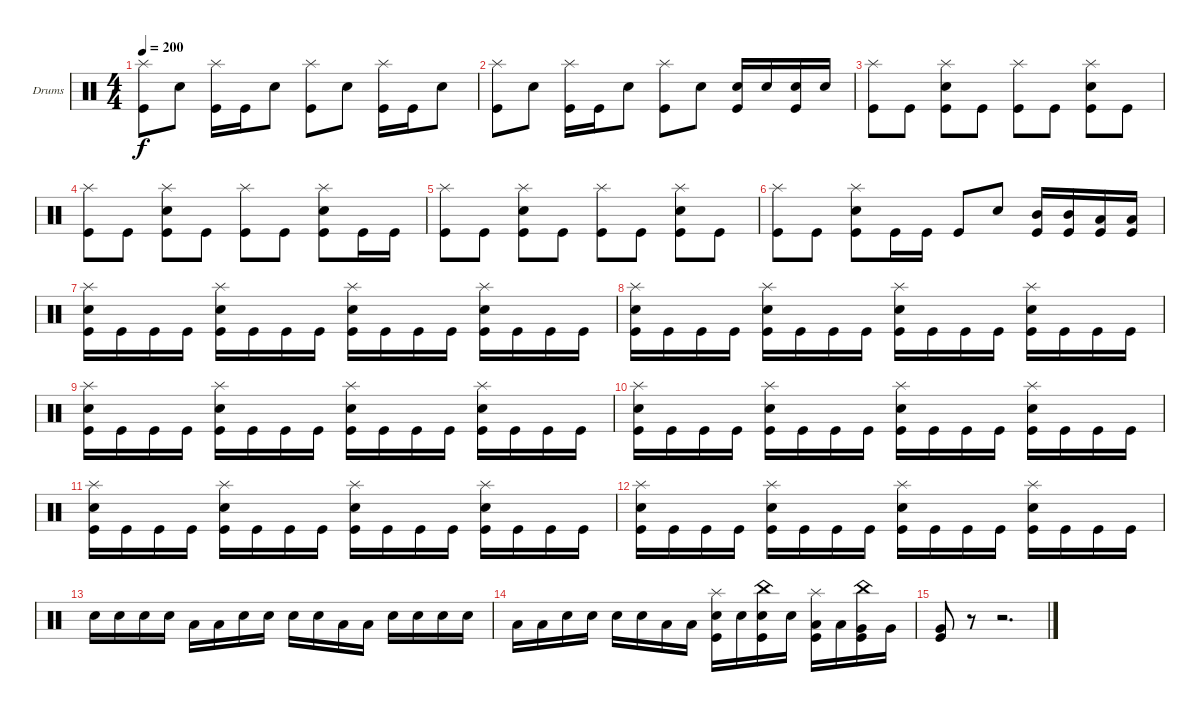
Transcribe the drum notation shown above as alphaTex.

\defaultSystemsLayout 4
\bracketExtendMode groupsimilarinstruments
\firstSystemTrackNameOrientation horizontal
\otherSystemsTrackNameOrientation horizontal
\track ("Drumkit" "Drums") {instrument percussion}
\staff {score}
\articulation defaults
\ts (4 4)
\tempo 200
\clef neutral
\ks c
("Splash (hit)" "Kick (hit)").8{dy f} "Snare (hit) 2".8 ("Splash (hit)" "Kick (hit)").16 "Kick (hit)".16 "Snare (hit) 2".8 ("Splash (hit)" "Kick (hit)").8 "Snare (hit) 2".8 ("Splash (hit)" "Kick (hit)").16 "Kick (hit)".16 "Snare (hit) 2".8 |
("Splash (hit)" "Kick (hit)").8 "Snare (hit) 2".8 ("Splash (hit)" "Kick (hit)").16 "Kick (hit)".16 "Snare (hit) 2".8 ("Splash (hit)" "Kick (hit)").8 "Snare (hit) 2".8 ("Kick (hit)" "Snare (hit) 2").16 "Snare (hit) 2".16 ("Snare (hit) 2" "Kick (hit)").16 "Snare (hit) 2".16 |
("Splash (hit)" "Kick (hit)").8 "Kick (hit)".8 ("Splash (hit)" "Kick (hit)" "Snare (hit) 2").8 "Kick (hit)".8 ("Splash (hit)" "Kick (hit)").8 "Kick (hit)".8 ("Splash (hit)" "Kick (hit)" "Snare (hit) 2").8 "Kick (hit)".8 |
("Splash (hit)" "Kick (hit)").8 "Kick (hit)".8 ("Splash (hit)" "Kick (hit)" "Snare (hit) 2").8 "Kick (hit)".8 ("Splash (hit)" "Kick (hit)").8 "Kick (hit)".8 ("Splash (hit)" "Kick (hit)" "Snare (hit) 2").8 "Kick (hit)".16 "Kick (hit)".16 |
("Splash (hit)" "Kick (hit)").8 "Kick (hit)".8 ("Splash (hit)" "Kick (hit)" "Snare (hit) 2").8 "Kick (hit)".8 ("Splash (hit)" "Kick (hit)").8 "Kick (hit)".8 ("Splash (hit)" "Kick (hit)" "Snare (hit) 2").8 "Kick (hit)".8 |
("Splash (hit)" "Kick (hit)").8 "Kick (hit)".8 ("Splash (hit)" "Kick (hit)" "Snare (hit) 2").8 "Kick (hit)".16 "Kick (hit)".16 "Kick (hit)".8 "Snare (hit) 2".8 ("Kick (hit)" "Mid Tom (hit)").16 ("Mid Tom (hit)" "Kick (hit)").16 ("Kick (hit)" "Low Tom (hit)").16 ("Low Tom (hit)" "Kick (hit)").16 |
("Splash (hit)" "Kick (hit)" "Snare (hit) 2").16 "Kick (hit)".16 "Kick (hit)".16 "Kick (hit)".16 ("Splash (hit)" "Kick (hit)" "Snare (hit) 2").16 "Kick (hit)".16 "Kick (hit)".16 "Kick (hit)".16 ("Splash (hit)" "Kick (hit)" "Snare (hit) 2").16 "Kick (hit)".16 "Kick (hit)".16 "Kick (hit)".16 ("Splash (hit)" "Kick (hit)" "Snare (hit) 2").16 "Kick (hit)".16 "Kick (hit)".16 "Kick (hit)".16 |
("Splash (hit)" "Kick (hit)" "Snare (hit) 2").16 "Kick (hit)".16 "Kick (hit)".16 "Kick (hit)".16 ("Splash (hit)" "Kick (hit)" "Snare (hit) 2").16 "Kick (hit)".16 "Kick (hit)".16 "Kick (hit)".16 ("Splash (hit)" "Kick (hit)" "Snare (hit) 2").16 "Kick (hit)".16 "Kick (hit)".16 "Kick (hit)".16 ("Splash (hit)" "Kick (hit)" "Snare (hit) 2").16 "Kick (hit)".16 "Kick (hit)".16 "Kick (hit)".16 |
("Splash (hit)" "Kick (hit)" "Snare (hit) 2").16 "Kick (hit)".16 "Kick (hit)".16 "Kick (hit)".16 ("Splash (hit)" "Kick (hit)" "Snare (hit) 2").16 "Kick (hit)".16 "Kick (hit)".16 "Kick (hit)".16 ("Splash (hit)" "Kick (hit)" "Snare (hit) 2").16 "Kick (hit)".16 "Kick (hit)".16 "Kick (hit)".16 ("Splash (hit)" "Kick (hit)" "Snare (hit) 2").16 "Kick (hit)".16 "Kick (hit)".16 "Kick (hit)".16 |
("Splash (hit)" "Kick (hit)" "Snare (hit) 2").16 "Kick (hit)".16 "Kick (hit)".16 "Kick (hit)".16 ("Splash (hit)" "Kick (hit)" "Snare (hit) 2").16 "Kick (hit)".16 "Kick (hit)".16 "Kick (hit)".16 ("Splash (hit)" "Kick (hit)" "Snare (hit) 2").16 "Kick (hit)".16 "Kick (hit)".16 "Kick (hit)".16 ("Splash (hit)" "Kick (hit)" "Snare (hit) 2").16 "Kick (hit)".16 "Kick (hit)".16 "Kick (hit)".16 |
("Splash (hit)" "Kick (hit)" "Snare (hit) 2").16 "Kick (hit)".16 "Kick (hit)".16 "Kick (hit)".16 ("Splash (hit)" "Kick (hit)" "Snare (hit) 2").16 "Kick (hit)".16 "Kick (hit)".16 "Kick (hit)".16 ("Splash (hit)" "Kick (hit)" "Snare (hit) 2").16 "Kick (hit)".16 "Kick (hit)".16 "Kick (hit)".16 ("Splash (hit)" "Kick (hit)" "Snare (hit) 2").16 "Kick (hit)".16 "Kick (hit)".16 "Kick (hit)".16 |
("Splash (hit)" "Kick (hit)" "Snare (hit) 2").16 "Kick (hit)".16 "Kick (hit)".16 "Kick (hit)".16 ("Splash (hit)" "Kick (hit)" "Snare (hit) 2").16 "Kick (hit)".16 "Kick (hit)".16 "Kick (hit)".16 ("Splash (hit)" "Kick (hit)" "Snare (hit) 2").16 "Kick (hit)".16 "Kick (hit)".16 "Kick (hit)".16 ("Splash (hit)" "Kick (hit)" "Snare (hit) 2").16 "Kick (hit)".16 "Kick (hit)".16 "Kick (hit)".16 |
"Snare (hit) 2".16 "Snare (hit) 2".16 "Snare (hit) 2".16 "Snare (hit) 2".16 "Low Tom (hit)".16 "Low Tom (hit)".16 "Snare (hit) 2".16 "Snare (hit) 2".16 "Snare (hit) 2".16 "Snare (hit) 2".16 "Low Tom (hit)".16 "Low Tom (hit)".16 "Snare (hit) 2".16 "Snare (hit) 2".16 "Snare (hit) 2".16 "Snare (hit) 2".16 |
"Low Tom (hit)".16 "Low Tom (hit)".16 "Snare (hit) 2".16 "Snare (hit) 2".16 "Snare (hit) 2".16 "Snare (hit) 2".16 "Low Tom (hit)".16 "Low Tom (hit)".16 ("Snare (hit) 2" "Splash (hit)" "Kick (hit)").16 "Snare (hit) 2".16 ("Snare (hit) 2" "China (hit)" "Kick (hit)").16 "Snare (hit) 2".16 ("Low Tom (hit)" "Splash (hit)" "Kick (hit)").16 "Low Tom (hit)".16 ("Very Low Tom (hit)" "China (hit)" "Kick (hit)").16 "Very Low Tom (hit)".16 |
("Kick (hit)" "Very Low Tom (hit)").8 r.8 r.2{d}
